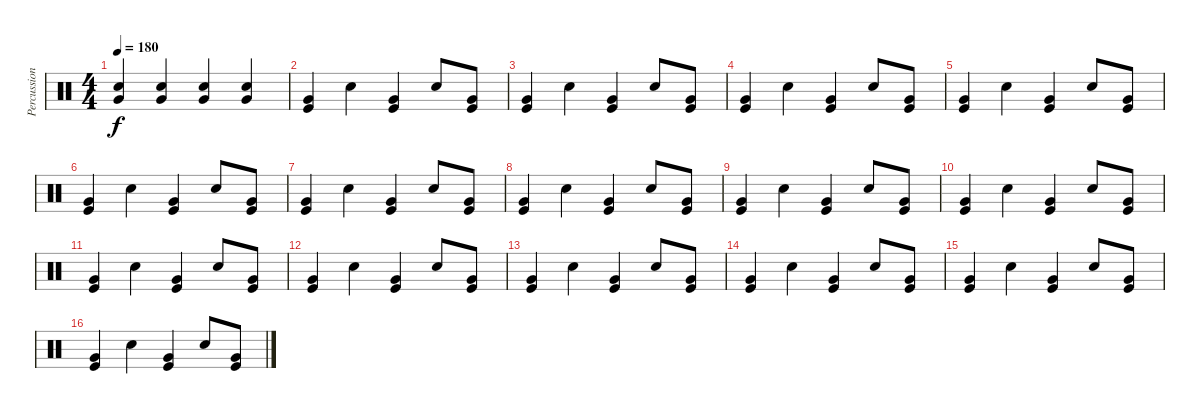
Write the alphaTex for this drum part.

\track ("Percussions" "Percussion") {instrument percussion}
\staff {score}
\articulation defaults
\ts (4 4)
\tempo 180
\clef neutral
\ks c
("Hand Clap (hit)" "Very Low Tom (hit)").4{dy f} ("Hand Clap (hit)" "Very Low Tom (hit)").4 ("Hand Clap (hit)" "Very Low Tom (hit)").4 ("Hand Clap (hit)" "Very Low Tom (hit)").4 |
("Very Low Tom (hit)" "Kick (hit)").4 "Hand Clap (hit)".4 ("Very Low Tom (hit)" "Kick (hit)").4 "Hand Clap (hit)".8 ("Very Low Tom (hit)" "Kick (hit)").8 |
("Very Low Tom (hit)" "Kick (hit)").4 "Hand Clap (hit)".4 ("Very Low Tom (hit)" "Kick (hit)").4 "Hand Clap (hit)".8 ("Very Low Tom (hit)" "Kick (hit)").8 |
("Very Low Tom (hit)" "Kick (hit)").4 "Hand Clap (hit)".4 ("Very Low Tom (hit)" "Kick (hit)").4 "Hand Clap (hit)".8 ("Very Low Tom (hit)" "Kick (hit)").8 |
("Very Low Tom (hit)" "Kick (hit)").4 "Hand Clap (hit)".4 ("Very Low Tom (hit)" "Kick (hit)").4 "Hand Clap (hit)".8 ("Very Low Tom (hit)" "Kick (hit)").8 |
("Very Low Tom (hit)" "Kick (hit)").4 "Hand Clap (hit)".4 ("Very Low Tom (hit)" "Kick (hit)").4 "Hand Clap (hit)".8 ("Very Low Tom (hit)" "Kick (hit)").8 |
("Very Low Tom (hit)" "Kick (hit)").4 "Hand Clap (hit)".4 ("Very Low Tom (hit)" "Kick (hit)").4 "Hand Clap (hit)".8 ("Very Low Tom (hit)" "Kick (hit)").8 |
("Very Low Tom (hit)" "Kick (hit)").4 "Hand Clap (hit)".4 ("Very Low Tom (hit)" "Kick (hit)").4 "Hand Clap (hit)".8 ("Very Low Tom (hit)" "Kick (hit)").8 |
("Very Low Tom (hit)" "Kick (hit)").4 "Hand Clap (hit)".4 ("Very Low Tom (hit)" "Kick (hit)").4 "Hand Clap (hit)".8 ("Very Low Tom (hit)" "Kick (hit)").8 |
("Very Low Tom (hit)" "Kick (hit)").4 "Hand Clap (hit)".4 ("Very Low Tom (hit)" "Kick (hit)").4 "Hand Clap (hit)".8 ("Very Low Tom (hit)" "Kick (hit)").8 |
("Very Low Tom (hit)" "Kick (hit)").4 "Hand Clap (hit)".4 ("Very Low Tom (hit)" "Kick (hit)").4 "Hand Clap (hit)".8 ("Very Low Tom (hit)" "Kick (hit)").8 |
("Very Low Tom (hit)" "Kick (hit)").4 "Hand Clap (hit)".4 ("Very Low Tom (hit)" "Kick (hit)").4 "Hand Clap (hit)".8 ("Very Low Tom (hit)" "Kick (hit)").8 |
("Very Low Tom (hit)" "Kick (hit)").4 "Hand Clap (hit)".4 ("Very Low Tom (hit)" "Kick (hit)").4 "Hand Clap (hit)".8 ("Very Low Tom (hit)" "Kick (hit)").8 |
("Very Low Tom (hit)" "Kick (hit)").4 "Hand Clap (hit)".4 ("Very Low Tom (hit)" "Kick (hit)").4 "Hand Clap (hit)".8 ("Very Low Tom (hit)" "Kick (hit)").8 |
("Very Low Tom (hit)" "Kick (hit)").4 "Hand Clap (hit)".4 ("Very Low Tom (hit)" "Kick (hit)").4 "Hand Clap (hit)".8 ("Very Low Tom (hit)" "Kick (hit)").8 |
("Very Low Tom (hit)" "Kick (hit)").4 "Hand Clap (hit)".4 ("Very Low Tom (hit)" "Kick (hit)").4 "Hand Clap (hit)".8 ("Very Low Tom (hit)" "Kick (hit)").8
